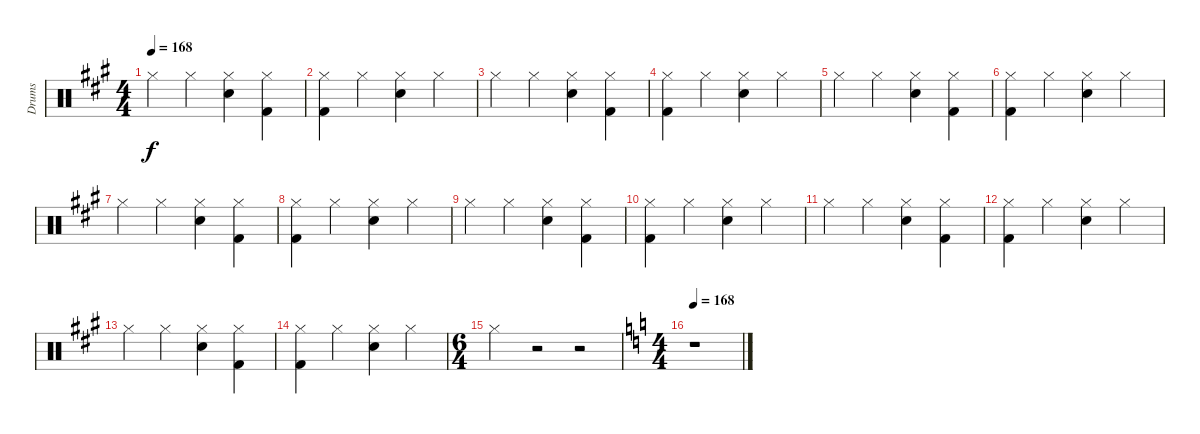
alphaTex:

\track ("Drums" "Drums") {instrument percussion}
\staff {score}
\articulation defaults
\ts (4 4)
\tempo 168
\clef neutral
\ks a "Hi-Hat (closed)".4{dy f} "Hi-Hat (closed)".4
("Snare (hit) 2" "Hi-Hat (closed)").4 ("Kick (hit) 2" "Hi-Hat (closed)").4 |
("Kick (hit) 2" "Hi-Hat (closed)").4 "Hi-Hat (closed)".4 ("Snare (hit) 2" "Hi-Hat (closed)").4 "Hi-Hat (closed)".4 |
"Hi-Hat (closed)".4 "Hi-Hat (closed)".4 ("Snare (hit) 2" "Hi-Hat (closed)").4 ("Kick (hit) 2" "Hi-Hat (closed)").4 |
("Kick (hit) 2" "Hi-Hat (closed)").4 "Hi-Hat (closed)".4 ("Snare (hit) 2" "Hi-Hat (closed)").4 "Hi-Hat (closed)".4 |
"Hi-Hat (closed)".4 "Hi-Hat (closed)".4 ("Snare (hit) 2" "Hi-Hat (closed)").4 ("Kick (hit) 2" "Hi-Hat (closed)").4 |
("Kick (hit) 2" "Hi-Hat (closed)").4 "Hi-Hat (closed)".4 ("Snare (hit) 2" "Hi-Hat (closed)").4 "Hi-Hat (closed)".4 |
"Hi-Hat (closed)".4 "Hi-Hat (closed)".4 ("Snare (hit) 2" "Hi-Hat (closed)").4 ("Kick (hit) 2" "Hi-Hat (closed)").4 |
("Kick (hit) 2" "Hi-Hat (closed)").4 "Hi-Hat (closed)".4 ("Snare (hit) 2" "Hi-Hat (closed)").4 "Hi-Hat (closed)".4 |
"Hi-Hat (closed)".4 "Hi-Hat (closed)".4 ("Snare (hit) 2" "Hi-Hat (closed)").4 ("Kick (hit) 2" "Hi-Hat (closed)").4 |
("Kick (hit) 2" "Hi-Hat (closed)").4 "Hi-Hat (closed)".4 ("Snare (hit) 2" "Hi-Hat (closed)").4 "Hi-Hat (closed)".4 |
"Hi-Hat (closed)".4 "Hi-Hat (closed)".4 ("Snare (hit) 2" "Hi-Hat (closed)").4 ("Kick (hit) 2" "Hi-Hat (closed)").4 |
("Kick (hit) 2" "Hi-Hat (closed)").4 "Hi-Hat (closed)".4 ("Snare (hit) 2" "Hi-Hat (closed)").4 "Hi-Hat (closed)".4 |
"Hi-Hat (closed)".4 "Hi-Hat (closed)".4 ("Snare (hit) 2" "Hi-Hat (closed)").4 ("Kick (hit) 2" "Hi-Hat (closed)").4 |
("Kick (hit) 2" "Hi-Hat (closed)").4 "Hi-Hat (closed)".4 ("Snare (hit) 2" "Hi-Hat (closed)").4 "Hi-Hat (closed)".4 |
\ts (6 4)
"Hi-Hat (closed)".2 r.2 r.2 |
\ts (4 4)
\tempo 168
\ks c
r.1
